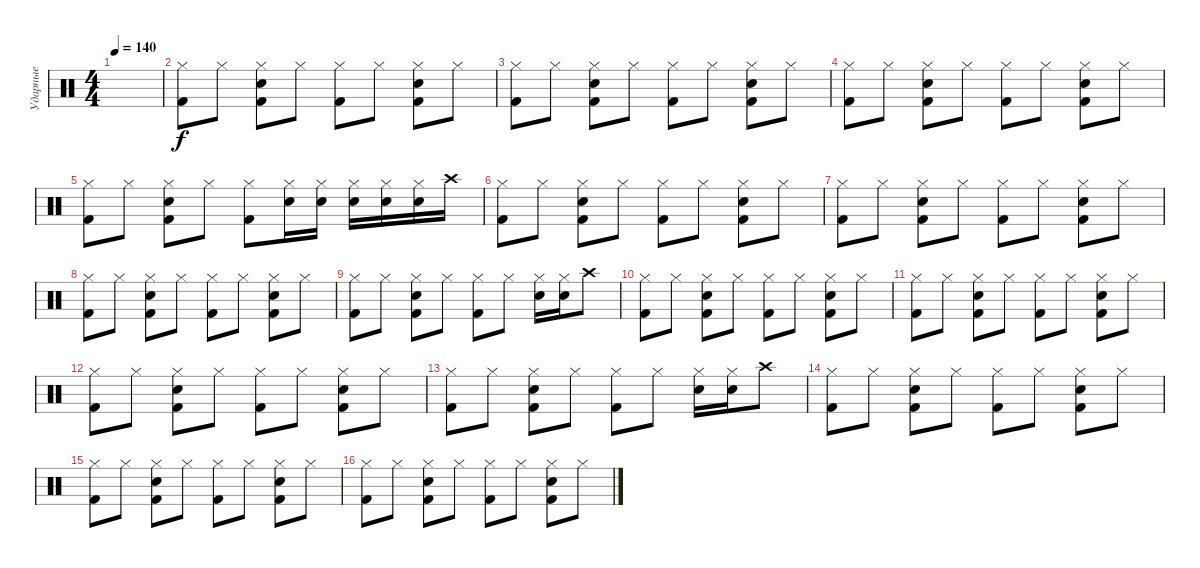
\track ("Ударные" "Ударные") {instrument percussion}
\staff {score}
\articulation defaults
\ts (4 4)
\tempo 140
\clef neutral
\ks c
|
("Hi-Hat (closed)" "Kick (hit) 2").8 "Hi-Hat (closed)".8 ("Hi-Hat (closed)" "Kick (hit) 2" "Snare (hit) 2").8 "Hi-Hat (closed)".8 ("Hi-Hat (closed)" "Kick (hit) 2").8 "Hi-Hat (closed)".8 ("Hi-Hat (closed)" "Kick (hit) 2" "Snare (hit) 2").8 "Hi-Hat (closed)".8 |
("Hi-Hat (closed)" "Kick (hit) 2").8 "Hi-Hat (closed)".8 ("Hi-Hat (closed)" "Kick (hit) 2" "Snare (hit) 2").8 "Hi-Hat (closed)".8 ("Hi-Hat (closed)" "Kick (hit) 2").8 "Hi-Hat (closed)".8 ("Hi-Hat (closed)" "Kick (hit) 2" "Snare (hit) 2").8 "Hi-Hat (closed)".8 |
("Hi-Hat (closed)" "Kick (hit) 2").8 "Hi-Hat (closed)".8 ("Hi-Hat (closed)" "Kick (hit) 2" "Snare (hit) 2").8 "Hi-Hat (closed)".8 ("Hi-Hat (closed)" "Kick (hit) 2").8 "Hi-Hat (closed)".8 ("Hi-Hat (closed)" "Kick (hit) 2" "Snare (hit) 2").8 "Hi-Hat (closed)".8 |
("Hi-Hat (closed)" "Kick (hit) 2").8 "Hi-Hat (closed)".8 ("Hi-Hat (closed)" "Kick (hit) 2" "Snare (hit) 2").8 "Hi-Hat (closed)".8 ("Hi-Hat (closed)" "Kick (hit) 2").8 ("Hi-Hat (closed)" "Snare (hit) 2").16 ("Hi-Hat (closed)" "Snare (hit) 2").16 ("Hi-Hat (closed)" "Snare (hit) 2").16 ("Hi-Hat (closed)" "Snare (hit) 2").16 ("Hi-Hat (closed)" "Snare (hit) 2").16 "Crash high (hit)".16 |
("Hi-Hat (closed)" "Kick (hit) 2").8 "Hi-Hat (closed)".8 ("Hi-Hat (closed)" "Kick (hit) 2" "Snare (hit) 2").8 "Hi-Hat (closed)".8 ("Hi-Hat (closed)" "Kick (hit) 2").8 "Hi-Hat (closed)".8 ("Hi-Hat (closed)" "Kick (hit) 2" "Snare (hit) 2").8 "Hi-Hat (closed)".8 |
("Hi-Hat (closed)" "Kick (hit) 2").8 "Hi-Hat (closed)".8 ("Hi-Hat (closed)" "Kick (hit) 2" "Snare (hit) 2").8 "Hi-Hat (closed)".8 ("Hi-Hat (closed)" "Kick (hit) 2").8 "Hi-Hat (closed)".8 ("Hi-Hat (closed)" "Kick (hit) 2" "Snare (hit) 2").8 "Hi-Hat (closed)".8 |
("Hi-Hat (closed)" "Kick (hit) 2").8 "Hi-Hat (closed)".8 ("Hi-Hat (closed)" "Kick (hit) 2" "Snare (hit) 2").8 "Hi-Hat (closed)".8 ("Hi-Hat (closed)" "Kick (hit) 2").8 "Hi-Hat (closed)".8 ("Hi-Hat (closed)" "Kick (hit) 2" "Snare (hit) 2").8 "Hi-Hat (closed)".8 |
("Hi-Hat (closed)" "Kick (hit) 2").8 "Hi-Hat (closed)".8 ("Hi-Hat (closed)" "Kick (hit) 2" "Snare (hit) 2").8 "Hi-Hat (closed)".8 ("Hi-Hat (closed)" "Kick (hit) 2").8 "Hi-Hat (closed)".8 ("Hi-Hat (closed)" "Snare (hit) 2").16 ("Hi-Hat (closed)" "Snare (hit) 2").16 "Crash high (hit)".8 |
("Hi-Hat (closed)" "Kick (hit) 2").8 "Hi-Hat (closed)".8 ("Hi-Hat (closed)" "Kick (hit) 2" "Snare (hit) 2").8 "Hi-Hat (closed)".8 ("Hi-Hat (closed)" "Kick (hit) 2").8 "Hi-Hat (closed)".8 ("Hi-Hat (closed)" "Kick (hit) 2" "Snare (hit) 2").8 "Hi-Hat (closed)".8 |
("Hi-Hat (closed)" "Kick (hit) 2").8 "Hi-Hat (closed)".8 ("Hi-Hat (closed)" "Kick (hit) 2" "Snare (hit) 2").8 "Hi-Hat (closed)".8 ("Hi-Hat (closed)" "Kick (hit) 2").8 "Hi-Hat (closed)".8 ("Hi-Hat (closed)" "Kick (hit) 2" "Snare (hit) 2").8 "Hi-Hat (closed)".8 |
("Hi-Hat (closed)" "Kick (hit) 2").8 "Hi-Hat (closed)".8 ("Hi-Hat (closed)" "Kick (hit) 2" "Snare (hit) 2").8 "Hi-Hat (closed)".8 ("Hi-Hat (closed)" "Kick (hit) 2").8 "Hi-Hat (closed)".8 ("Hi-Hat (closed)" "Kick (hit) 2" "Snare (hit) 2").8 "Hi-Hat (closed)".8 |
("Hi-Hat (closed)" "Kick (hit) 2").8 "Hi-Hat (closed)".8 ("Hi-Hat (closed)" "Kick (hit) 2" "Snare (hit) 2").8 "Hi-Hat (closed)".8 ("Hi-Hat (closed)" "Kick (hit) 2").8 "Hi-Hat (closed)".8 ("Hi-Hat (closed)" "Snare (hit) 2").16 ("Hi-Hat (closed)" "Snare (hit) 2").16 "Crash high (hit)".8 |
("Hi-Hat (closed)" "Kick (hit) 2").8 "Hi-Hat (closed)".8 ("Hi-Hat (closed)" "Kick (hit) 2" "Snare (hit) 2").8 "Hi-Hat (closed)".8 ("Hi-Hat (closed)" "Kick (hit) 2").8 "Hi-Hat (closed)".8 ("Hi-Hat (closed)" "Kick (hit) 2" "Snare (hit) 2").8 "Hi-Hat (closed)".8 |
("Hi-Hat (closed)" "Kick (hit) 2").8 "Hi-Hat (closed)".8 ("Hi-Hat (closed)" "Kick (hit) 2" "Snare (hit) 2").8 "Hi-Hat (closed)".8 ("Hi-Hat (closed)" "Kick (hit) 2").8 "Hi-Hat (closed)".8 ("Hi-Hat (closed)" "Kick (hit) 2" "Snare (hit) 2").8 "Hi-Hat (closed)".8 |
("Hi-Hat (closed)" "Kick (hit) 2").8 "Hi-Hat (closed)".8 ("Hi-Hat (closed)" "Kick (hit) 2" "Snare (hit) 2").8 "Hi-Hat (closed)".8 ("Hi-Hat (closed)" "Kick (hit) 2").8 "Hi-Hat (closed)".8 ("Hi-Hat (closed)" "Kick (hit) 2" "Snare (hit) 2").8 "Hi-Hat (closed)".8
